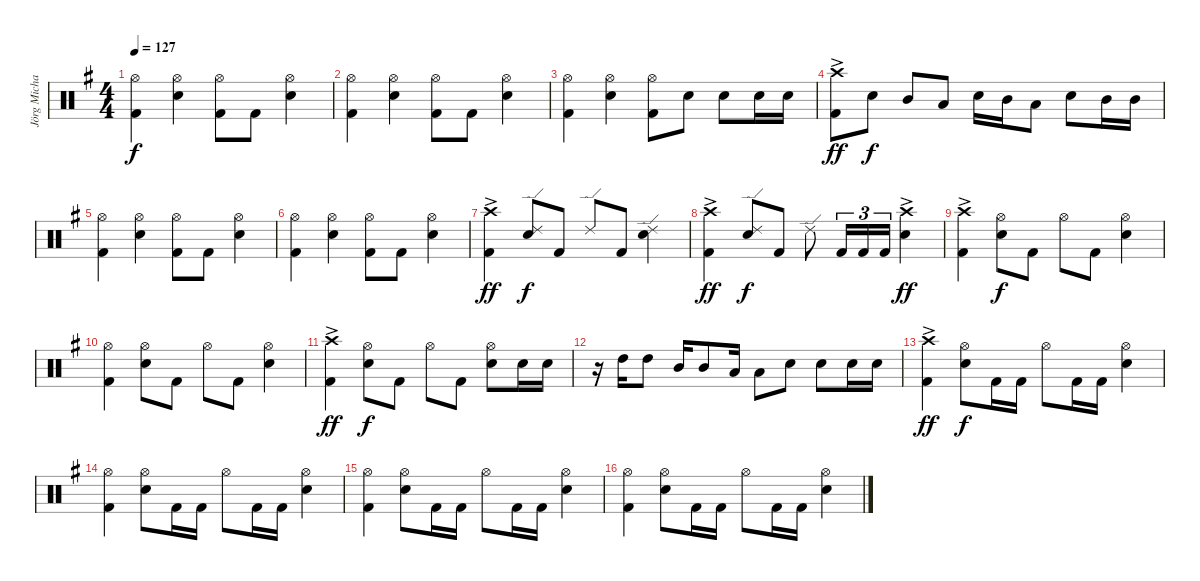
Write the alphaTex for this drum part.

\track ("Jörg Michael" "Jörg Micha") {instrument percussion}
\staff {score}
\articulation defaults
\ts (4 4)
\tempo 127
\clef neutral
\ks g
("Hi-Hat (open)" "Kick (hit) 2").4{dy f} ("Hi-Hat (open)" "Electric Snare (hit)").4 ("Hi-Hat (open)" "Kick (hit) 2").8 "Kick (hit) 2".8 ("Hi-Hat (open)" "Electric Snare (hit)").4 |
("Hi-Hat (open)" "Kick (hit) 2").4 ("Hi-Hat (open)" "Electric Snare (hit)").4 ("Hi-Hat (open)" "Kick (hit) 2").8 "Kick (hit) 2".8 ("Hi-Hat (open)" "Electric Snare (hit)").4 |
("Hi-Hat (open)" "Kick (hit) 2").4 ("Hi-Hat (open)" "Electric Snare (hit)").4 ("Hi-Hat (open)" "Kick (hit) 2").8 "Electric Snare (hit)".8 "Electric Snare (hit)".8 "Electric Snare (hit)".16 "Electric Snare (hit)".16 |
("Crash high (hit)"{ac} "Kick (hit) 2").8{dy ff} "Electric Snare (hit)".8{dy f} "Mid Tom (hit)".8 "Low Tom (hit)".8 "Electric Snare (hit)".16 "Mid Tom (hit)".16 "Low Tom (hit)".8 "Electric Snare (hit)".8 "Mid Tom (hit)".16 "Mid Tom (hit)".16 |
("Hi-Hat (open)" "Kick (hit) 2").4 ("Hi-Hat (open)" "Electric Snare (hit)").4 ("Hi-Hat (open)" "Kick (hit) 2").8 "Kick (hit) 2".8 ("Hi-Hat (open)" "Electric Snare (hit)").4 |
("Hi-Hat (open)" "Kick (hit) 2").4 ("Hi-Hat (open)" "Electric Snare (hit)").4 ("Hi-Hat (open)" "Kick (hit) 2").8 "Kick (hit) 2".8 ("Hi-Hat (open)" "Electric Snare (hit)").4 |
("Crash high (hit)"{ac} "Kick (hit) 2"{ac}).4{dy ff} ("Ride (edge) 2" "Electric Snare (hit)").8{dy f} "Kick (hit) 2".8 "Ride (edge) 2".8 "Kick (hit) 2".8 ("Electric Snare (hit)" "Ride (edge) 2").4 |
("Crash high (hit)"{ac} "Kick (hit) 2"{ac}).4{dy ff} ("Ride (edge) 2" "Electric Snare (hit)").8{dy f} "Kick (hit) 2".8 "Ride (edge) 2".8 "Kick (hit) 2".16{tu (3 2)} "Kick (hit) 2".16{tu (3 2)} "Kick (hit) 2".16{tu (3 2)} ("Crash high (hit)"{ac} "Electric Snare (hit)"{ac}).4{dy ff} |
("Crash high (hit)"{ac} "Kick (hit) 2"{ac}).4 ("Hi-Hat (open)" "Electric Snare (hit)").8{dy f} "Kick (hit) 2".8 "Hi-Hat (open)".8 "Kick (hit) 2".8 ("Electric Snare (hit)" "Hi-Hat (open)").4 |
("Hi-Hat (open)" "Kick (hit) 2").4 ("Hi-Hat (open)" "Electric Snare (hit)").8 "Kick (hit) 2".8 "Hi-Hat (open)".8 "Kick (hit) 2".8 ("Electric Snare (hit)" "Hi-Hat (open)").4 |
("Crash high (hit)"{ac} "Kick (hit) 2"{ac}).4{dy ff} ("Hi-Hat (open)" "Electric Snare (hit)").8{dy f} "Kick (hit) 2".8 "Hi-Hat (open)".8 "Kick (hit) 2".8 ("Electric Snare (hit)" "Hi-Hat (open)").8 "Electric Snare (hit)".16 "Electric Snare (hit)".16 |
r.16 "High Tom (hit)".16 "High Tom (hit)".8 "Mid Tom (hit)".16 "Mid Tom (hit)".8 "Low Tom (hit)".16 "Low Tom (hit)".8 "Electric Snare (hit)".8 "Electric Snare (hit)".8 "Electric Snare (hit)".16 "Electric Snare (hit)".16 |
("Crash high (hit)"{ac} "Kick (hit) 2"{ac}).4{dy ff} ("Hi-Hat (open)" "Electric Snare (hit)").8{dy f} "Kick (hit) 2".16 "Kick (hit) 2".16 "Hi-Hat (open)".8 "Kick (hit) 2".16 "Kick (hit) 2".16 ("Hi-Hat (open)" "Electric Snare (hit)").4 |
("Hi-Hat (open)" "Kick (hit) 2").4 ("Hi-Hat (open)" "Electric Snare (hit)").8 "Kick (hit) 2".16 "Kick (hit) 2".16 "Hi-Hat (open)".8 "Kick (hit) 2".16 "Kick (hit) 2".16 ("Hi-Hat (open)" "Electric Snare (hit)").4 |
("Hi-Hat (open)" "Kick (hit) 2").4 ("Hi-Hat (open)" "Electric Snare (hit)").8 "Kick (hit) 2".16 "Kick (hit) 2".16 "Hi-Hat (open)".8 "Kick (hit) 2".16 "Kick (hit) 2".16 ("Hi-Hat (open)" "Electric Snare (hit)").4 |
("Hi-Hat (open)" "Kick (hit) 2").4 ("Hi-Hat (open)" "Electric Snare (hit)").8 "Kick (hit) 2".16 "Kick (hit) 2".16 "Hi-Hat (open)".8 "Kick (hit) 2".16 "Kick (hit) 2".16 ("Hi-Hat (open)" "Electric Snare (hit)").4
